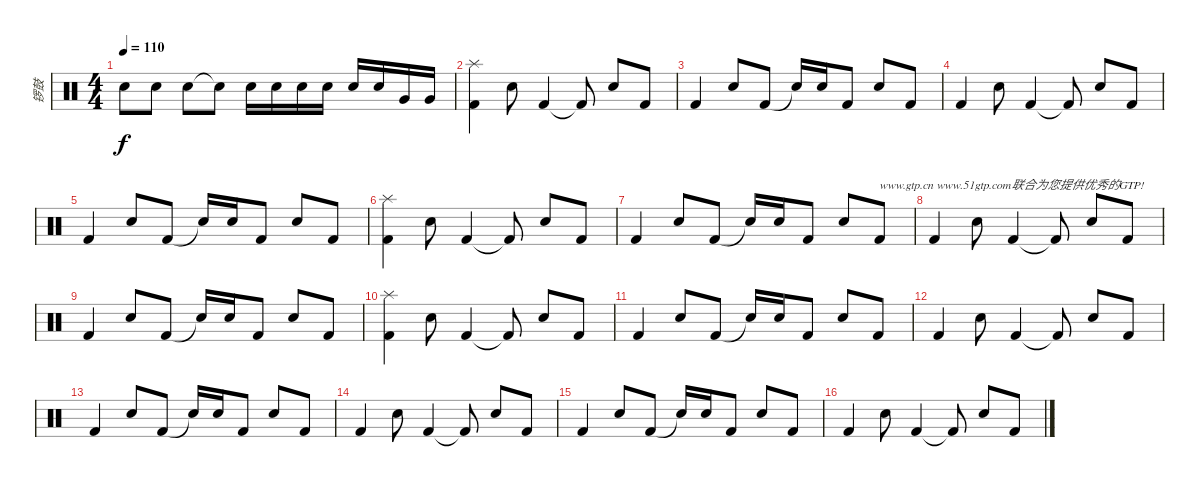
\track ("锣鼓" "锣鼓") {instrument percussion}
\staff {score}
\articulation defaults
\ts (4 4)
\tempo 110
\clef neutral
\ks c "Snare (hit) 2".8{dy f} "Snare (hit) 2".8 "Snare (hit) 2".8 "Snare (hit)"{t}.8 "Snare (hit) 2".16 "Snare (hit) 2".16 "Snare (hit) 2".16 "Snare (hit) 2".16 "Snare (hit) 2".16 "Snare (hit) 2".16 "Very Low Tom (hit)".16 "Very Low Tom (hit)".16
|
("Kick (hit) 2" "Splash (hit)").4 "Snare (hit) 2".8 "Kick (hit) 2".4 "Kick (hit) 2"{t}.8 "Snare (hit) 2".8 "Kick (hit) 2".8 |
"Kick (hit) 2".4 "Snare (hit) 2".8 "Kick (hit) 2".8 "Snare (hit)"{t}.16 "Snare (hit) 2".16 "Kick (hit) 2".8 "Snare (hit) 2".8 "Kick (hit) 2".8 |
"Kick (hit) 2".4 "Snare (hit) 2".8 "Kick (hit) 2".4 "Kick (hit) 2"{t}.8 "Snare (hit) 2".8 "Kick (hit) 2".8 |
"Kick (hit) 2".4 "Snare (hit) 2".8 "Kick (hit) 2".8 "Snare (hit)"{t}.16 "Snare (hit) 2".16 "Kick (hit) 2".8 "Snare (hit) 2".8 "Kick (hit) 2".8 |
("Kick (hit) 2" "Splash (hit)").4 "Snare (hit) 2".8 "Kick (hit) 2".4 "Kick (hit) 2"{t}.8 "Snare (hit) 2".8 "Kick (hit) 2".8 |
"Kick (hit) 2".4 "Snare (hit) 2".8 "Kick (hit) 2".8 "Snare (hit)"{t}.16 "Snare (hit) 2".16 "Kick (hit) 2".8 "Snare (hit) 2".8 "Kick (hit) 2".8{txt "www.gtp.cn www.51gtp.com联合为您提供优秀的GTP!"} |
"Kick (hit) 2".4 "Snare (hit) 2".8 "Kick (hit) 2".4 "Kick (hit) 2"{t}.8 "Snare (hit) 2".8 "Kick (hit) 2".8 |
"Kick (hit) 2".4 "Snare (hit) 2".8 "Kick (hit) 2".8 "Snare (hit)"{t}.16 "Snare (hit) 2".16 "Kick (hit) 2".8 "Snare (hit) 2".8 "Kick (hit) 2".8 |
("Kick (hit) 2" "Splash (hit)").4 "Snare (hit) 2".8 "Kick (hit) 2".4 "Kick (hit) 2"{t}.8 "Snare (hit) 2".8 "Kick (hit) 2".8 |
"Kick (hit) 2".4 "Snare (hit) 2".8 "Kick (hit) 2".8 "Snare (hit)"{t}.16 "Snare (hit) 2".16 "Kick (hit) 2".8 "Snare (hit) 2".8 "Kick (hit) 2".8 |
"Kick (hit) 2".4 "Snare (hit) 2".8 "Kick (hit) 2".4 "Kick (hit) 2"{t}.8 "Snare (hit) 2".8 "Kick (hit) 2".8 |
"Kick (hit) 2".4 "Snare (hit) 2".8 "Kick (hit) 2".8 "Snare (hit)"{t}.16 "Snare (hit) 2".16 "Kick (hit) 2".8 "Snare (hit) 2".8 "Kick (hit) 2".8 |
"Kick (hit) 2".4 "Snare (hit) 2".8 "Kick (hit) 2".4 "Kick (hit) 2"{t}.8 "Snare (hit) 2".8 "Kick (hit) 2".8 |
"Kick (hit) 2".4 "Snare (hit) 2".8 "Kick (hit) 2".8 "Snare (hit)"{t}.16 "Snare (hit) 2".16 "Kick (hit) 2".8 "Snare (hit) 2".8 "Kick (hit) 2".8 |
"Kick (hit) 2".4 "Snare (hit) 2".8 "Kick (hit) 2".4 "Kick (hit) 2"{t}.8 "Snare (hit) 2".8 "Kick (hit) 2".8
